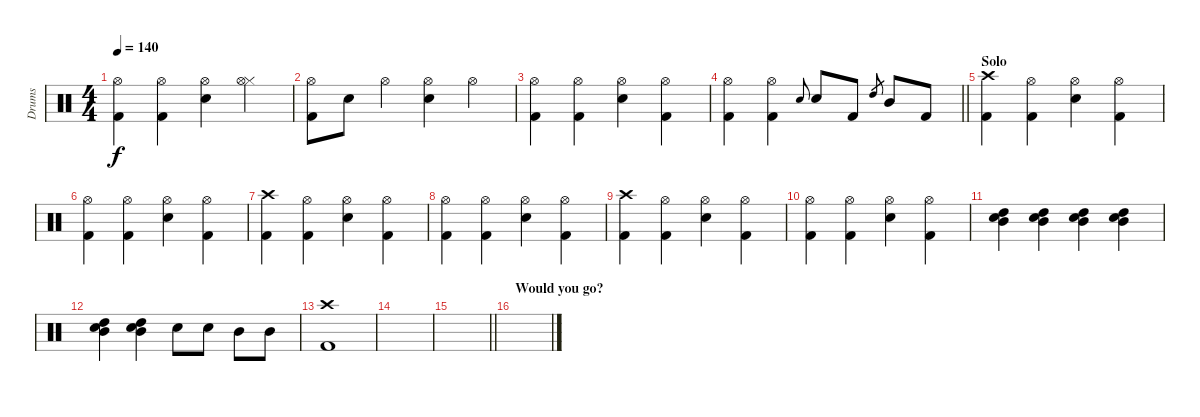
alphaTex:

\track ("Drums" "Drums") {instrument percussion}
\staff {score}
\articulation defaults
\ts (4 4)
\tempo 140
\clef neutral
\ks c
("Kick (hit) 2" "Hi-Hat (open)").4{dy f} ("Kick (hit) 2" "Hi-Hat (open)").4 ("Electric Snare (hit)" "Hi-Hat (open)").4 ("Hi-Hat (closed)" "Hi-Hat (open)").4 |
("Kick (hit) 2" "Hi-Hat (open)").8 "Electric Snare (hit)".8 "Hi-Hat (open)".4 ("Electric Snare (hit)" "Hi-Hat (open)").4 "Hi-Hat (open)".4 |
("Kick (hit) 2" "Hi-Hat (open)").4 ("Kick (hit) 2" "Hi-Hat (open)").4 ("Electric Snare (hit)" "Hi-Hat (open)").4 ("Kick (hit) 2" "Hi-Hat (open)").4 |
\barLineRight lightlight
("Kick (hit) 2" "Hi-Hat (open)").4 ("Kick (hit) 2" "Hi-Hat (open)").4 "Electric Snare (hit)".8{gr onbeat} "Electric Snare (hit)".8 "Kick (hit) 2".8 "High Tom (hit)".8{gr} "Mid Tom (hit)".8 "Kick (hit) 2".8 |
\section ("" "Solo")
("Kick (hit) 2" "Crash high (hit)").4 ("Kick (hit) 2" "Hi-Hat (open)").4 ("Electric Snare (hit)" "Hi-Hat (open)").4 ("Kick (hit) 2" "Hi-Hat (open)").4 |
("Kick (hit) 2" "Hi-Hat (open)").4 ("Kick (hit) 2" "Hi-Hat (open)").4 ("Hi-Hat (open)" "Electric Snare (hit)").4 ("Hi-Hat (open)" "Kick (hit) 2").4 |
("Kick (hit) 2" "Crash high (hit)").4 ("Kick (hit) 2" "Hi-Hat (open)").4 ("Electric Snare (hit)" "Hi-Hat (open)").4 ("Kick (hit) 2" "Hi-Hat (open)").4 |
("Kick (hit) 2" "Hi-Hat (open)").4 ("Kick (hit) 2" "Hi-Hat (open)").4 ("Hi-Hat (open)" "Electric Snare (hit)").4 ("Hi-Hat (open)" "Kick (hit) 2").4 |
("Kick (hit) 2" "Crash high (hit)").4 ("Kick (hit) 2" "Hi-Hat (open)").4 ("Electric Snare (hit)" "Hi-Hat (open)").4 ("Kick (hit) 2" "Hi-Hat (open)").4 |
("Kick (hit) 2" "Hi-Hat (open)").4 ("Kick (hit) 2" "Hi-Hat (open)").4 ("Hi-Hat (open)" "Electric Snare (hit)").4 ("Hi-Hat (open)" "Kick (hit) 2").4 |
("Electric Snare (hit)" "Mid Tom (hit)" "High Tom (hit)").4 ("Electric Snare (hit)" "Mid Tom (hit)" "High Tom (hit)").4 ("Electric Snare (hit)" "Mid Tom (hit)" "High Tom (hit)").4 ("Electric Snare (hit)" "Mid Tom (hit)" "High Tom (hit)").4 |
("Electric Snare (hit)" "Mid Tom (hit)" "High Tom (hit)").4 ("Electric Snare (hit)" "Mid Tom (hit)" "High Tom (hit)").4 "Electric Snare (hit)".8 "Electric Snare (hit)".8 "Mid Tom (hit)".8 "Mid Tom (hit)".8 |
("Kick (hit) 2" "Crash high (hit)").1 |
|
\barLineRight lightlight
|
\section ("" "Would you go?")
